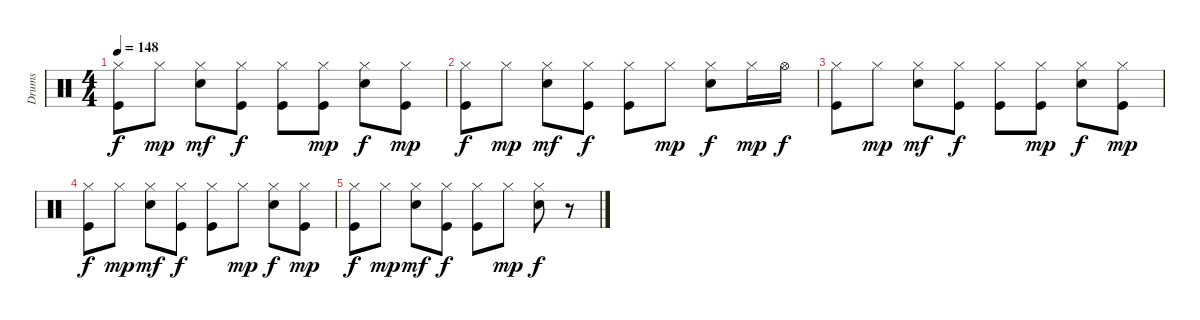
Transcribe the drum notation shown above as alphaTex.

\track ("Drums   " "Drums   ") {instrument percussion}
\staff {score}
\articulation defaults
\ts (4 4)
\tempo 148
\clef neutral
\ks c
("Hi-Hat (closed)" "Kick (hit)").8{dy f} "Hi-Hat (closed)".8{dy mp} ("Hi-Hat (closed)" "Snare (hit) 2").8{dy mf} ("Hi-Hat (closed)" "Kick (hit)").8{dy f} ("Hi-Hat (closed)" "Kick (hit)").8 ("Hi-Hat (closed)" "Kick (hit)").8{dy mp} ("Hi-Hat (closed)" "Snare (hit) 2").8{dy f} ("Hi-Hat (closed)" "Kick (hit)").8{dy mp} |
("Hi-Hat (closed)" "Kick (hit)").8{dy f} "Hi-Hat (closed)".8{dy mp} ("Hi-Hat (closed)" "Snare (hit) 2").8{dy mf} ("Hi-Hat (closed)" "Kick (hit)").8{dy f} ("Hi-Hat (closed)" "Kick (hit)").8 "Hi-Hat (closed)".8{dy mp} ("Hi-Hat (closed)" "Snare (hit) 2").8{dy f} "Hi-Hat (closed)".16{dy mp} "Hi-Hat (open)".16{dy f} |
("Hi-Hat (closed)" "Kick (hit)").8 "Hi-Hat (closed)".8{dy mp} ("Hi-Hat (closed)" "Snare (hit) 2").8{dy mf} ("Hi-Hat (closed)" "Kick (hit)").8{dy f} ("Hi-Hat (closed)" "Kick (hit)").8 ("Hi-Hat (closed)" "Kick (hit)").8{dy mp} ("Hi-Hat (closed)" "Snare (hit) 2").8{dy f} ("Hi-Hat (closed)" "Kick (hit)").8{dy mp} |
("Hi-Hat (closed)" "Kick (hit)").8{dy f} "Hi-Hat (closed)".8{dy mp} ("Hi-Hat (closed)" "Snare (hit) 2").8{dy mf} ("Hi-Hat (closed)" "Kick (hit)").8{dy f} ("Hi-Hat (closed)" "Kick (hit)").8 "Hi-Hat (closed)".8{dy mp} ("Hi-Hat (closed)" "Snare (hit) 2").8{dy f} ("Hi-Hat (closed)" "Kick (hit)").8{dy mp} |
("Hi-Hat (closed)" "Kick (hit)").8{dy f} "Hi-Hat (closed)".8{dy mp} ("Hi-Hat (closed)" "Snare (hit) 2").8{dy mf} ("Hi-Hat (closed)" "Kick (hit)").8{dy f} ("Hi-Hat (closed)" "Kick (hit)").8 "Hi-Hat (closed)".8{dy mp} ("Hi-Hat (closed)" "Snare (hit) 2").8{dy f} r.8
